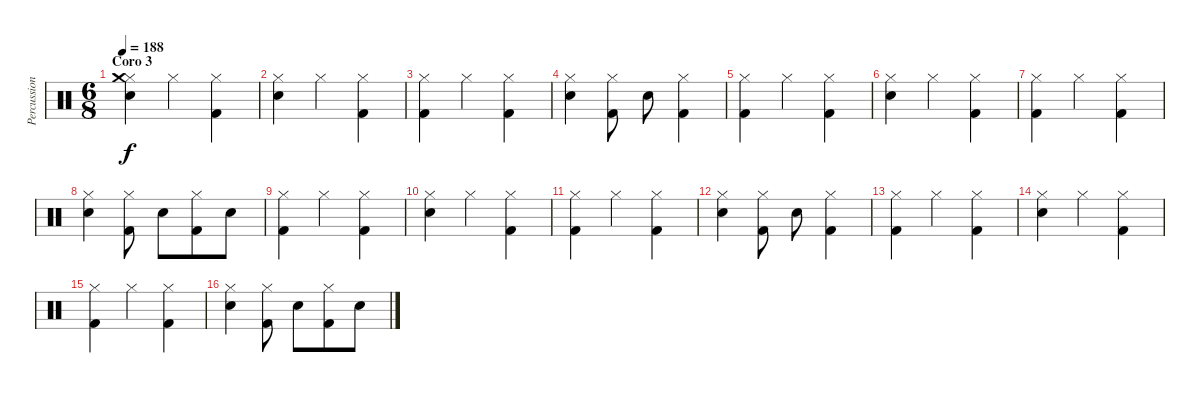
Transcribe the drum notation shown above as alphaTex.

\track ("Percussion" "Percussion") {instrument percussion}
\staff {score}
\articulation defaults
\ts (6 8)
\section ("" "Coro 3")
\tempo 188
\clef neutral
\ks c
("Hi-Hat (closed)" "Crash medium (hit)" "Snare (hit) 2").4{dy f} "Hi-Hat (closed)".4 ("Hi-Hat (closed)" "Kick (hit) 2").4 |
("Hi-Hat (closed)" "Snare (hit) 2").4 "Hi-Hat (closed)".4 ("Hi-Hat (closed)" "Kick (hit) 2").4 |
("Hi-Hat (closed)" "Kick (hit) 2").4 "Hi-Hat (closed)".4 ("Hi-Hat (closed)" "Kick (hit) 2").4 |
("Hi-Hat (closed)" "Snare (hit) 2").4 ("Hi-Hat (closed)" "Kick (hit) 2").8 "Electric Snare (hit)".8 ("Hi-Hat (closed)" "Kick (hit) 2").4 |
("Hi-Hat (closed)" "Kick (hit) 2").4 "Hi-Hat (closed)".4 ("Hi-Hat (closed)" "Kick (hit) 2").4 |
("Hi-Hat (closed)" "Snare (hit) 2").4 "Hi-Hat (closed)".4 ("Hi-Hat (closed)" "Kick (hit) 2").4 |
("Hi-Hat (closed)" "Kick (hit) 2").4 "Hi-Hat (closed)".4 ("Hi-Hat (closed)" "Kick (hit) 2").4 |
("Hi-Hat (closed)" "Snare (hit) 2").4 ("Hi-Hat (closed)" "Kick (hit) 2").8 "Electric Snare (hit)".8 ("Hi-Hat (closed)" "Kick (hit) 2").8 "Electric Snare (hit)".8 |
("Hi-Hat (closed)" "Kick (hit) 2").4 "Hi-Hat (closed)".4 ("Hi-Hat (closed)" "Kick (hit) 2").4 |
("Hi-Hat (closed)" "Snare (hit) 2").4 "Hi-Hat (closed)".4 ("Hi-Hat (closed)" "Kick (hit) 2").4 |
("Hi-Hat (closed)" "Kick (hit) 2").4 "Hi-Hat (closed)".4 ("Hi-Hat (closed)" "Kick (hit) 2").4 |
("Hi-Hat (closed)" "Snare (hit) 2").4 ("Hi-Hat (closed)" "Kick (hit) 2").8 "Electric Snare (hit)".8 ("Hi-Hat (closed)" "Kick (hit) 2").4 |
("Hi-Hat (closed)" "Kick (hit) 2").4 "Hi-Hat (closed)".4 ("Hi-Hat (closed)" "Kick (hit) 2").4 |
("Hi-Hat (closed)" "Snare (hit) 2").4 "Hi-Hat (closed)".4 ("Hi-Hat (closed)" "Kick (hit) 2").4 |
("Hi-Hat (closed)" "Kick (hit) 2").4 "Hi-Hat (closed)".4 ("Hi-Hat (closed)" "Kick (hit) 2").4 |
("Hi-Hat (closed)" "Snare (hit) 2").4 ("Hi-Hat (closed)" "Kick (hit) 2").8 "Electric Snare (hit)".8 ("Hi-Hat (closed)" "Kick (hit) 2").8 "Electric Snare (hit)".8
